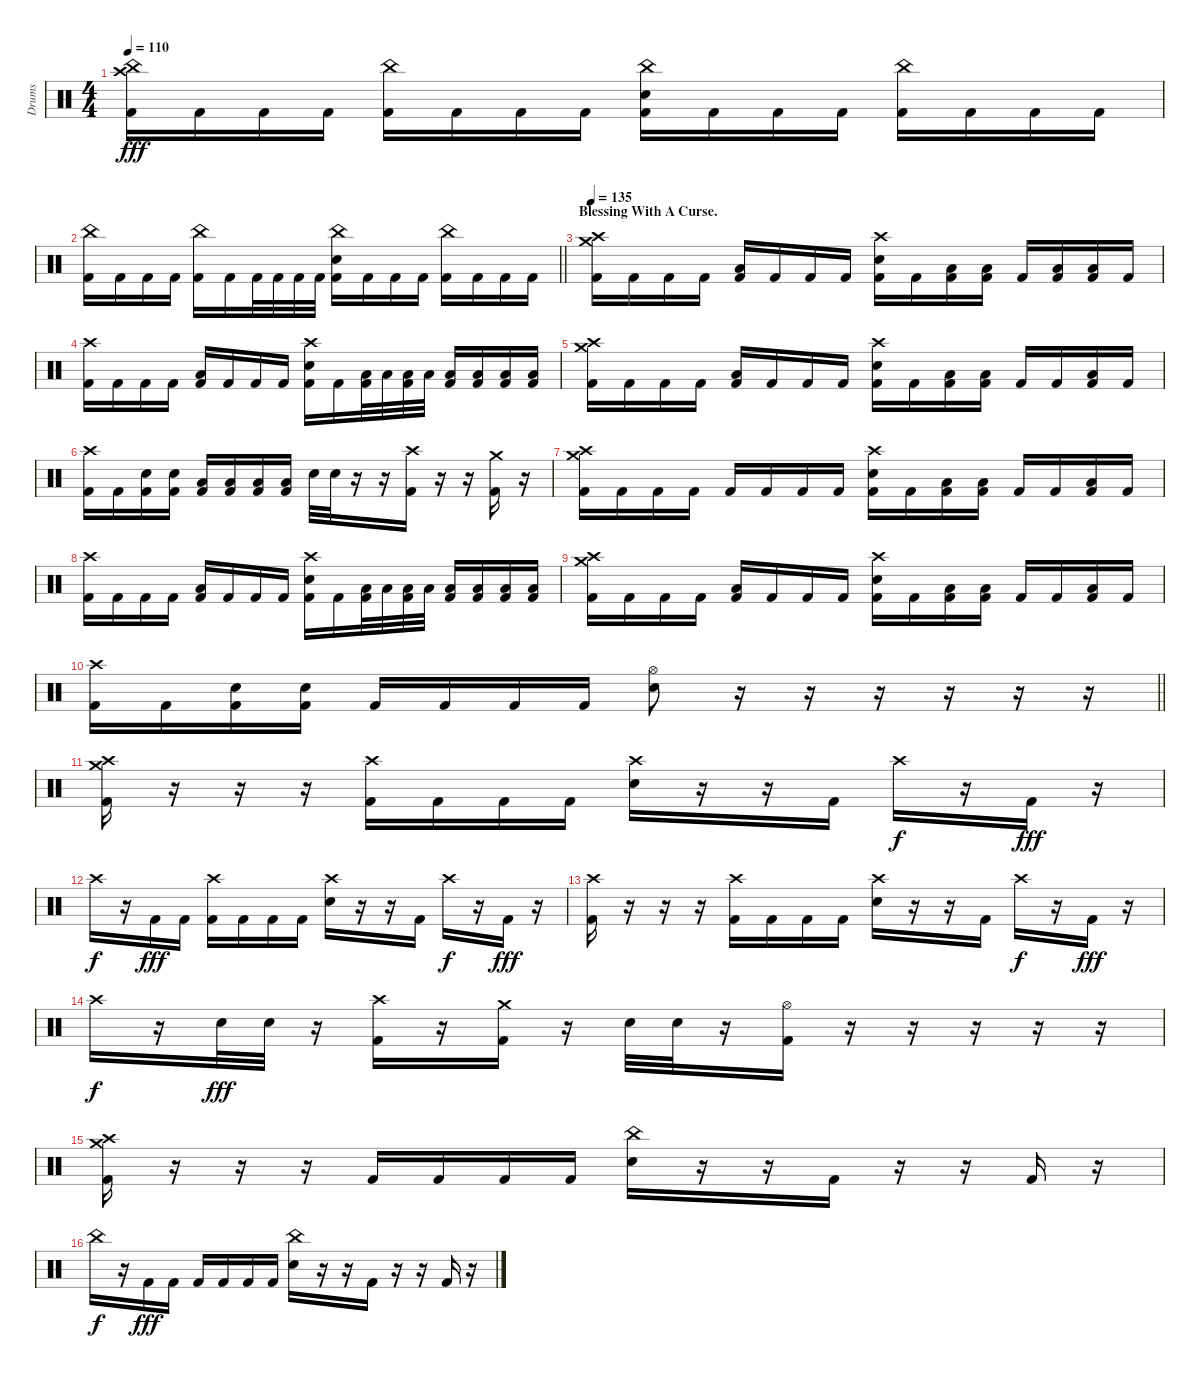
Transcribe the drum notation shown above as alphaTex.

\track ("Drums" "Drums") {instrument percussion}
\staff {score}
\articulation defaults
\ts (4 4)
\tempo 110
\clef neutral
\ks c
("Crash high (hit)" "China (hit)" "Kick (hit) 2").16{dy fff} "Kick (hit) 2".16 "Kick (hit) 2".16 "Kick (hit) 2".16 ("China (hit)" "Kick (hit) 2").16 "Kick (hit) 2".16 "Kick (hit) 2".16 "Kick (hit) 2".16 ("China (hit)" "Electric Snare (hit)" "Kick (hit) 2").16 "Kick (hit) 2".16 "Kick (hit) 2".16 "Kick (hit) 2".16 ("China (hit)" "Kick (hit) 2").16 "Kick (hit) 2".16 "Kick (hit) 2".16 "Kick (hit) 2".16 |
\barLineRight lightlight
("China (hit)" "Kick (hit) 2").16 "Kick (hit) 2".16 "Kick (hit) 2".16 "Kick (hit) 2".16 ("China (hit)" "Kick (hit) 2").16 "Kick (hit) 2".16 "Kick (hit) 2".32 "Kick (hit) 2".32 "Kick (hit) 2".32 "Kick (hit) 2".32 ("China (hit)" "Electric Snare (hit)" "Kick (hit) 2").16 "Kick (hit) 2".16 "Kick (hit) 2".16 "Kick (hit) 2".16 ("China (hit)" "Kick (hit) 2").16 "Kick (hit) 2".16 "Kick (hit) 2".16 "Kick (hit) 2".16 |
\section ("" "Blessing With A Curse.")
\tempo 135
("Crash high (hit)" "Crash medium (hit)" "Kick (hit) 2").16 "Kick (hit) 2".16 "Kick (hit) 2".16 "Kick (hit) 2".16 ("Low Tom (hit)" "Kick (hit) 2").16 "Kick (hit) 2".16 "Kick (hit) 2".16 "Kick (hit) 2".16 ("Crash high (hit)" "Electric Snare (hit)" "Kick (hit) 2").16 "Kick (hit) 2".16 ("Low Tom (hit)" "Kick (hit) 2").16 ("Low Tom (hit)" "Kick (hit) 2").16 "Kick (hit) 2".16 ("Low Tom (hit)" "Kick (hit) 2").16 ("Low Tom (hit)" "Kick (hit) 2").16 "Kick (hit) 2".16 |
("Crash high (hit)" "Kick (hit) 2").16 "Kick (hit) 2".16 "Kick (hit) 2".16 "Kick (hit) 2".16 ("Low Tom (hit)" "Kick (hit) 2").16 "Kick (hit) 2".16 "Kick (hit) 2".16 "Kick (hit) 2".16 ("Crash high (hit)" "Electric Snare (hit)" "Kick (hit) 2").16 "Kick (hit) 2".16 ("Low Tom (hit)" "Kick (hit) 2").32 "Low Tom (hit)".32 ("Low Tom (hit)" "Kick (hit) 2").32 "Low Tom (hit)".32 ("Low Tom (hit)" "Kick (hit) 2").16 ("Low Tom (hit)" "Kick (hit) 2").16 ("Low Tom (hit)" "Kick (hit) 2").16 ("Low Tom (hit)" "Kick (hit) 2").16 |
("Crash high (hit)" "Crash medium (hit)" "Kick (hit) 2").16 "Kick (hit) 2".16 "Kick (hit) 2".16 "Kick (hit) 2".16 ("Low Tom (hit)" "Kick (hit) 2").16 "Kick (hit) 2".16 "Kick (hit) 2".16 "Kick (hit) 2".16 ("Crash high (hit)" "Electric Snare (hit)" "Kick (hit) 2").16 "Kick (hit) 2".16 ("Low Tom (hit)" "Kick (hit) 2").16 ("Low Tom (hit)" "Kick (hit) 2").16 "Kick (hit) 2".16 "Kick (hit) 2".16 ("Low Tom (hit)" "Kick (hit) 2").16 "Kick (hit) 2".16 |
("Crash high (hit)" "Kick (hit) 2").16 "Kick (hit) 2".16 ("Electric Snare (hit)" "Kick (hit) 2").16 ("Electric Snare (hit)" "Kick (hit) 2").16 ("Low Tom (hit)" "Kick (hit) 2").16 ("Low Tom (hit)" "Kick (hit) 2").16 ("Low Floor Tom (hit)" "Kick (hit) 2").16 ("Low Floor Tom (hit)" "Kick (hit) 2").16 "Electric Snare (hit)".32 "Electric Snare (hit)".32 r.16 r.16 ("Crash high (hit)" "Kick (hit) 2").16 r.16 r.16 ("Crash medium (hit)" "Kick (hit) 2").16 r.16 |
("Crash high (hit)" "Crash medium (hit)" "Kick (hit) 2").16 "Kick (hit) 2".16 "Kick (hit) 2".16 "Kick (hit) 2".16 "Kick (hit) 2".16 "Kick (hit) 2".16 "Kick (hit) 2".16 "Kick (hit) 2".16 ("Crash high (hit)" "Electric Snare (hit)" "Kick (hit) 2").16 "Kick (hit) 2".16 ("Low Tom (hit)" "Kick (hit) 2").16 ("Low Tom (hit)" "Kick (hit) 2").16 "Kick (hit) 2".16 "Kick (hit) 2".16 ("Low Tom (hit)" "Kick (hit) 2").16 "Kick (hit) 2".16 |
("Crash high (hit)" "Kick (hit) 2").16 "Kick (hit) 2".16 "Kick (hit) 2".16 "Kick (hit) 2".16 ("Low Tom (hit)" "Kick (hit) 2").16 "Kick (hit) 2".16 "Kick (hit) 2".16 "Kick (hit) 2".16 ("Crash high (hit)" "Electric Snare (hit)" "Kick (hit) 2").16 "Kick (hit) 2".16 ("Low Tom (hit)" "Kick (hit) 2").32 "Low Tom (hit)".32 ("Low Tom (hit)" "Kick (hit) 2").32 "Low Tom (hit)".32 ("Low Tom (hit)" "Kick (hit) 2").16 ("Low Tom (hit)" "Kick (hit) 2").16 ("Low Tom (hit)" "Kick (hit) 2").16 ("Low Tom (hit)" "Kick (hit) 2").16 |
("Crash high (hit)" "Crash medium (hit)" "Kick (hit) 2").16 "Kick (hit) 2".16 "Kick (hit) 2".16 "Kick (hit) 2".16 ("Low Tom (hit)" "Kick (hit) 2").16 "Kick (hit) 2".16 "Kick (hit) 2".16 "Kick (hit) 2".16 ("Crash high (hit)" "Electric Snare (hit)" "Kick (hit) 2").16 "Kick (hit) 2".16 ("Low Tom (hit)" "Kick (hit) 2").16 ("Low Tom (hit)" "Kick (hit) 2").16 "Kick (hit) 2".16 "Kick (hit) 2".16 ("Low Tom (hit)" "Kick (hit) 2").16 "Kick (hit) 2".16 |
\barLineRight lightlight
("Crash high (hit)" "Kick (hit) 2").16 "Kick (hit) 2".16 ("Electric Snare (hit)" "Kick (hit) 2").16 ("Electric Snare (hit)" "Kick (hit) 2").16 "Kick (hit) 2".16 "Kick (hit) 2".16 "Kick (hit) 2".16 "Kick (hit) 2".16 ("Hi-Hat (open)" "Electric Snare (hit)").8 r.16{volume 0} r.16 r.16 r.16 r.16 r.16 |
\section ("" "")
("Crash high (hit)" "Crash medium (hit)" "Kick (hit) 2").16{volume 13} r.16 r.16 r.16 ("Crash high (hit)" "Kick (hit) 2").16 "Kick (hit) 2".16 "Kick (hit) 2".16 "Kick (hit) 2".16 ("Crash high (hit)" "Electric Snare (hit)").16 r.16 r.16 "Kick (hit) 2".16 "Crash high (hit)".16{dy f} r.16 "Kick (hit) 2".16{dy fff} r.16 |
"Crash high (hit)".16{dy f} r.16 "Kick (hit) 2".16{dy fff} "Kick (hit) 2".16 ("Crash high (hit)" "Kick (hit) 2").16 "Kick (hit) 2".16 "Kick (hit) 2".16 "Kick (hit) 2".16 ("Crash high (hit)" "Electric Snare (hit)").16 r.16 r.16 "Kick (hit) 2".16 "Crash high (hit)".16{dy f} r.16 "Kick (hit) 2".16{dy fff} r.16 |
("Crash high (hit)" "Kick (hit) 2").16 r.16 r.16 r.16 ("Crash high (hit)" "Kick (hit) 2").16 "Kick (hit) 2".16 "Kick (hit) 2".16 "Kick (hit) 2".16 ("Crash high (hit)" "Electric Snare (hit)").16 r.16 r.16 "Kick (hit) 2".16 "Crash high (hit)".16{dy f} r.16 "Kick (hit) 2".16{dy fff} r.16 |
"Crash high (hit)".16{dy f} r.16 "Electric Snare (hit)".32{dy fff} "Electric Snare (hit)".32 r.16 ("Crash high (hit)" "Kick (hit) 2").16 r.16 ("Crash medium (hit)" "Kick (hit) 2").16 r.16 "Electric Snare (hit)".32 "Electric Snare (hit)".32 r.16 ("Hi-Hat (open)" "Kick (hit) 2").16 r.16 r.16 r.16 r.16 r.16 |
("Crash high (hit)" "Crash medium (hit)" "Kick (hit) 2").16 r.16 r.16 r.16 "Kick (hit) 2".16 "Kick (hit) 2".16 "Kick (hit) 2".16 "Kick (hit) 2".16 ("China (hit)" "Electric Snare (hit)").16 r.16 r.16 "Kick (hit) 2".16 r.16 r.16 "Kick (hit) 2".16 r.16 |
"China (hit)".16{dy f} r.16 "Kick (hit) 2".16{dy fff} "Kick (hit) 2".16 "Kick (hit) 2".16 "Kick (hit) 2".16 "Kick (hit) 2".16 "Kick (hit) 2".16 ("China (hit)" "Electric Snare (hit)").16 r.16 r.16 "Kick (hit) 2".16 r.16 r.16 "Kick (hit) 2".16 r.16
